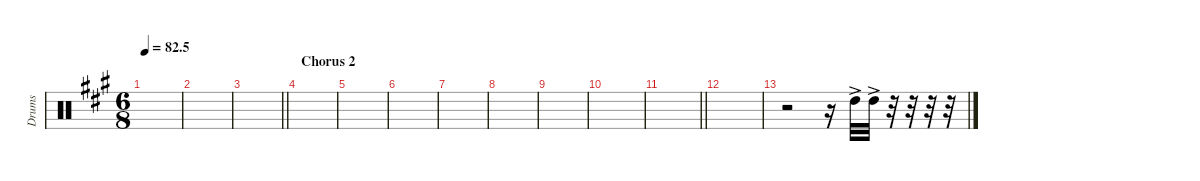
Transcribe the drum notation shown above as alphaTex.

\defaultSystemsLayout 4
\hideDynamics
\bracketExtendMode nobrackets
\otherSystemsTrackNameOrientation horizontal
\track ("Tom 01" "Drums") {instrument percussion}
\staff {score}
\articulation defaults
\ts (6 8)
\tempo
82.5
\accidentals auto
\clef neutral
\ottava regular
\simile none
\scale
0.333333
\ks a
|
\scale
0.333333 |
\scale
0.333333
\barLineRight lightlight
|
\section ("" "Chorus 2")
\scale
0.333333 |
\scale
0.333333 |
\scale
0.333333 |
\scale
0.333333 |
\scale
0.333333 |
\scale
0.333333 |
\scale
0.333333 |
\scale
0.333333
\barLineRight lightlight
|
\scale
0.333333 |
\scale
0.333333 r.2 r.16 "High Tom (hit)"{ac acc forcenatural}.32 "High Tom (hit)"{ac acc forcenatural}.32 r.32 r.32 r.32 r.32 |
\scale
0.333333 |
\scale
0.333333 |
\scale
0.333333
